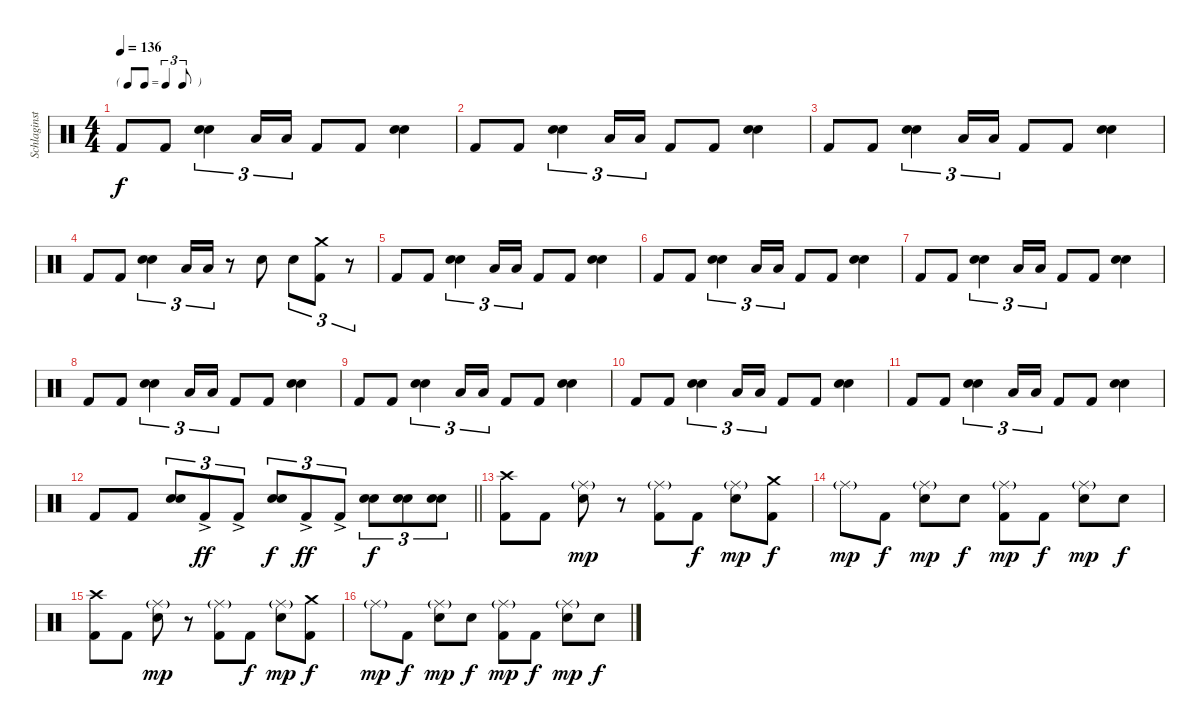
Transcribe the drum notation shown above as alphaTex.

\track ("Schlaginstrumente - Auswahl" "Schlaginst") {instrument percussion}
\staff {score}
\articulation defaults
\ts (4 4)
\tf triplet8th
\tempo 136
\clef neutral
\ks c "Kick (hit) 2".8{dy f} "Kick (hit) 2".8
("Snare (hit) 2" "Snare (hit) 2").4{tu (3 2) bd 240} "Low Tom (hit)".16{tu (3 2)} "Low Floor Tom (hit)".16{tu (3 2)} "Kick (hit) 2".8 "Kick (hit) 2".8 ("Snare (hit) 2" "Snare (hit) 2").4{bd 240} |
"Kick (hit) 2".8 "Kick (hit) 2".8 ("Snare (hit) 2" "Snare (hit) 2").4{tu (3 2) bd 240} "Low Tom (hit)".16{tu (3 2)} "Low Floor Tom (hit)".16{tu (3 2)} "Kick (hit) 2".8 "Kick (hit) 2".8 ("Snare (hit) 2" "Snare (hit) 2").4{bd 240} |
"Kick (hit) 2".8 "Kick (hit) 2".8 ("Snare (hit) 2" "Snare (hit) 2").4{tu (3 2) bd 240} "Low Tom (hit)".16{tu (3 2)} "Low Floor Tom (hit)".16{tu (3 2)} "Kick (hit) 2".8 "Kick (hit) 2".8 ("Snare (hit) 2" "Snare (hit) 2").4{bd 240} |
"Kick (hit) 2".8 "Kick (hit) 2".8 ("Snare (hit) 2" "Snare (hit) 2").4{tu (3 2) bd 240} "Low Tom (hit)".16{tu (3 2)} "Low Floor Tom (hit)".16{tu (3 2)} r.8 "Snare (hit) 2".8 "Snare (hit) 2".8{tu (3 2)} ("Crash medium (hit)" "Kick (hit) 2").8{tu (3 2)} r.8{tu (3 2)} |
"Kick (hit) 2".8 "Kick (hit) 2".8 ("Snare (hit) 2" "Snare (hit) 2").4{tu (3 2) bd 240} "Low Tom (hit)".16{tu (3 2)} "Low Floor Tom (hit)".16{tu (3 2)} "Kick (hit) 2".8 "Kick (hit) 2".8 ("Snare (hit) 2" "Snare (hit) 2").4{bd 240} |
"Kick (hit) 2".8 "Kick (hit) 2".8 ("Snare (hit) 2" "Snare (hit) 2").4{tu (3 2) bd 240} "Low Tom (hit)".16{tu (3 2)} "Low Floor Tom (hit)".16{tu (3 2)} "Kick (hit) 2".8 "Kick (hit) 2".8 ("Snare (hit) 2" "Snare (hit) 2").4{bd 240} |
"Kick (hit) 2".8 "Kick (hit) 2".8 ("Snare (hit) 2" "Snare (hit) 2").4{tu (3 2) bd 240} "Low Tom (hit)".16{tu (3 2)} "Low Floor Tom (hit)".16{tu (3 2)} "Kick (hit) 2".8 "Kick (hit) 2".8 ("Snare (hit) 2" "Snare (hit) 2").4{bd 240} |
"Kick (hit) 2".8 "Kick (hit) 2".8 ("Snare (hit) 2" "Snare (hit) 2").4{tu (3 2) bd 240} "Low Tom (hit)".16{tu (3 2)} "Low Floor Tom (hit)".16{tu (3 2)} "Kick (hit) 2".8 "Kick (hit) 2".8 ("Snare (hit) 2" "Snare (hit) 2").4{bd 240} |
"Kick (hit) 2".8 "Kick (hit) 2".8 ("Snare (hit) 2" "Snare (hit) 2").4{tu (3 2) bd 240} "Low Tom (hit)".16{tu (3 2)} "Low Floor Tom (hit)".16{tu (3 2)} "Kick (hit) 2".8 "Kick (hit) 2".8 ("Snare (hit) 2" "Snare (hit) 2").4{bd 240} |
"Kick (hit) 2".8 "Kick (hit) 2".8 ("Snare (hit) 2" "Snare (hit) 2").4{tu (3 2) bd 240} "Low Tom (hit)".16{tu (3 2)} "Low Floor Tom (hit)".16{tu (3 2)} "Kick (hit) 2".8 "Kick (hit) 2".8 ("Snare (hit) 2" "Snare (hit) 2").4{bd 240} |
"Kick (hit) 2".8 "Kick (hit) 2".8 ("Snare (hit) 2" "Snare (hit) 2").4{tu (3 2) bd 240} "Low Tom (hit)".16{tu (3 2)} "Low Floor Tom (hit)".16{tu (3 2)} "Kick (hit) 2".8 "Kick (hit) 2".8 ("Snare (hit) 2" "Snare (hit) 2").4{bd 240} |
\barLineRight lightlight "Kick (hit) 2".8 "Kick (hit) 2".8
("Snare (hit) 2" "Snare (hit) 2").8{tu (3 2) bd 240} "Kick (hit) 2"{ac}.8{tu (3 2) dy ff} "Kick (hit) 2"{ac}.8{tu (3 2)} ("Snare (hit) 2" "Snare (hit) 2").8{tu (3 2) bd 240 dy f} "Kick (hit) 2"{ac}.8{tu (3 2) dy ff} "Kick (hit) 2"{ac}.8{tu (3 2)} ("Snare (hit) 2" "Snare (hit) 2").8{tu (3 2) bd 240 dy f} ("Snare (hit) 2" "Snare (hit) 2").8{tu (3 2) bd 240} ("Snare (hit) 2" "Snare (hit) 2").8{tu (3 2) bd 240} |
("Crash high (hit)" "Kick (hit) 2").8 "Kick (hit) 2".8 ("Ride (middle)"{g} "Snare (hit) 2").8{dy mp} r.8 ("Ride (middle)"{g} "Kick (hit) 2").8 "Kick (hit) 2".8{dy f} ("Ride (middle)"{g} "Snare (hit) 2").8{dy mp} ("Crash medium (hit)" "Kick (hit) 2").8{dy f} |
"Ride (middle)"{g}.8{dy mp} "Kick (hit) 2".8{dy f} ("Ride (middle)"{g} "Snare (hit) 2").8{dy mp} "Snare (hit) 2".8{dy f} ("Ride (middle)"{g} "Kick (hit) 2").8{dy mp} "Kick (hit) 2".8{dy f} ("Ride (middle)"{g} "Snare (hit) 2").8{dy mp} "Snare (hit) 2".8{dy f} |
("Crash high (hit)" "Kick (hit) 2").8 "Kick (hit) 2".8 ("Ride (middle)"{g} "Snare (hit) 2").8{dy mp} r.8 ("Ride (middle)"{g} "Kick (hit) 2").8 "Kick (hit) 2".8{dy f} ("Ride (middle)"{g} "Snare (hit) 2").8{dy mp} ("Crash medium (hit)" "Kick (hit) 2").8{dy f} |
"Ride (middle)"{g}.8{dy mp} "Kick (hit) 2".8{dy f} ("Ride (middle)"{g} "Snare (hit) 2").8{dy mp} "Snare (hit) 2".8{dy f} ("Ride (middle)"{g} "Kick (hit) 2").8{dy mp} "Kick (hit) 2".8{dy f} ("Ride (middle)"{g} "Snare (hit) 2").8{dy mp} "Snare (hit) 2".8{dy f}
